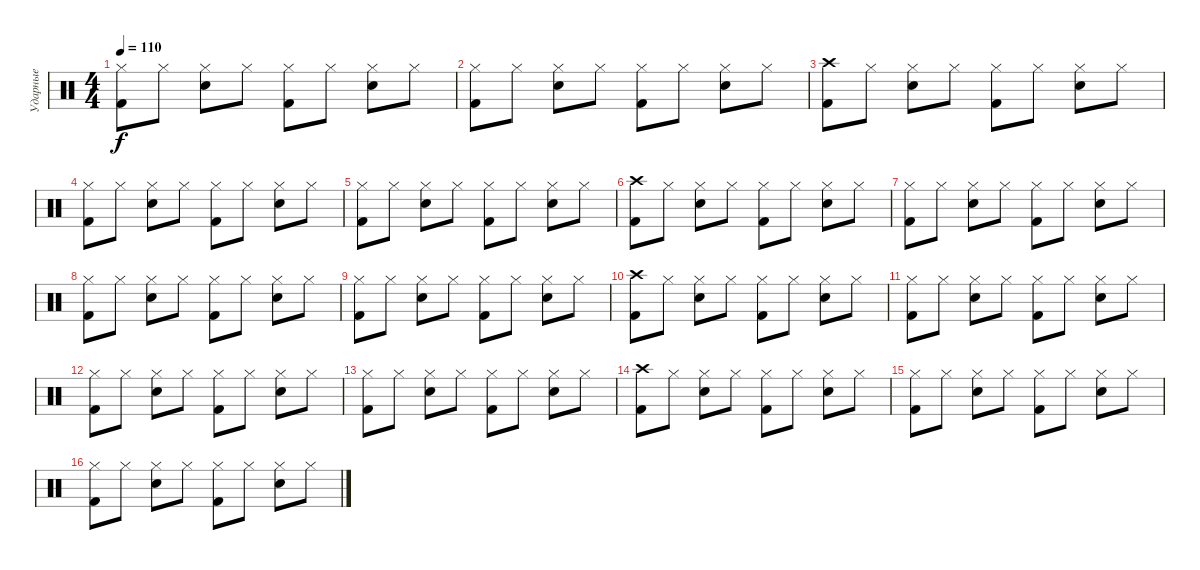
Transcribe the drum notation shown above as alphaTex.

\track ("Ударные" "Ударные") {instrument percussion}
\staff {score}
\articulation defaults
\ts (4 4)
\tempo 110
\clef neutral
\ks c
("Hi-Hat (closed)" "Kick (hit) 2").8{dy f} "Hi-Hat (closed)".8 ("Hi-Hat (closed)" "Electric Snare (hit)").8 "Hi-Hat (closed)".8 ("Hi-Hat (closed)" "Kick (hit) 2").8 "Hi-Hat (closed)".8 ("Hi-Hat (closed)" "Electric Snare (hit)").8 "Hi-Hat (closed)".8 |
("Hi-Hat (closed)" "Kick (hit) 2").8 "Hi-Hat (closed)".8 ("Hi-Hat (closed)" "Electric Snare (hit)").8 "Hi-Hat (closed)".8 ("Hi-Hat (closed)" "Kick (hit) 2").8 "Hi-Hat (closed)".8 ("Hi-Hat (closed)" "Electric Snare (hit)").8 "Hi-Hat (closed)".8 |
("Crash high (hit)" "Kick (hit) 2").8 "Hi-Hat (closed)".8 ("Hi-Hat (closed)" "Electric Snare (hit)").8 "Hi-Hat (closed)".8 ("Hi-Hat (closed)" "Kick (hit) 2").8 "Hi-Hat (closed)".8 ("Hi-Hat (closed)" "Electric Snare (hit)").8 "Hi-Hat (closed)".8 |
("Hi-Hat (closed)" "Kick (hit) 2").8 "Hi-Hat (closed)".8 ("Hi-Hat (closed)" "Electric Snare (hit)").8 "Hi-Hat (closed)".8 ("Hi-Hat (closed)" "Kick (hit) 2").8 "Hi-Hat (closed)".8 ("Hi-Hat (closed)" "Electric Snare (hit)").8 "Hi-Hat (closed)".8 |
("Hi-Hat (closed)" "Kick (hit) 2").8 "Hi-Hat (closed)".8 ("Hi-Hat (closed)" "Electric Snare (hit)").8 "Hi-Hat (closed)".8 ("Hi-Hat (closed)" "Kick (hit) 2").8 "Hi-Hat (closed)".8 ("Hi-Hat (closed)" "Electric Snare (hit)").8 "Hi-Hat (closed)".8 |
("Crash high (hit)" "Kick (hit) 2").8 "Hi-Hat (closed)".8 ("Hi-Hat (closed)" "Electric Snare (hit)").8 "Hi-Hat (closed)".8 ("Hi-Hat (closed)" "Kick (hit) 2").8 "Hi-Hat (closed)".8 ("Hi-Hat (closed)" "Electric Snare (hit)").8 "Hi-Hat (closed)".8 |
("Hi-Hat (closed)" "Kick (hit) 2").8 "Hi-Hat (closed)".8 ("Hi-Hat (closed)" "Electric Snare (hit)").8 "Hi-Hat (closed)".8 ("Hi-Hat (closed)" "Kick (hit) 2").8 "Hi-Hat (closed)".8 ("Hi-Hat (closed)" "Electric Snare (hit)").8 "Hi-Hat (closed)".8 |
("Hi-Hat (closed)" "Kick (hit) 2").8 "Hi-Hat (closed)".8 ("Hi-Hat (closed)" "Electric Snare (hit)").8 "Hi-Hat (closed)".8 ("Hi-Hat (closed)" "Kick (hit) 2").8 "Hi-Hat (closed)".8 ("Hi-Hat (closed)" "Electric Snare (hit)").8 "Hi-Hat (closed)".8 |
("Hi-Hat (closed)" "Kick (hit) 2").8 "Hi-Hat (closed)".8 ("Hi-Hat (closed)" "Electric Snare (hit)").8 "Hi-Hat (closed)".8 ("Hi-Hat (closed)" "Kick (hit) 2").8 "Hi-Hat (closed)".8 ("Hi-Hat (closed)" "Electric Snare (hit)").8 "Hi-Hat (closed)".8 |
("Crash high (hit)" "Kick (hit) 2").8 "Hi-Hat (closed)".8 ("Hi-Hat (closed)" "Electric Snare (hit)").8 "Hi-Hat (closed)".8 ("Hi-Hat (closed)" "Kick (hit) 2").8 "Hi-Hat (closed)".8 ("Hi-Hat (closed)" "Electric Snare (hit)").8 "Hi-Hat (closed)".8 |
("Hi-Hat (closed)" "Kick (hit) 2").8 "Hi-Hat (closed)".8 ("Hi-Hat (closed)" "Electric Snare (hit)").8 "Hi-Hat (closed)".8 ("Hi-Hat (closed)" "Kick (hit) 2").8 "Hi-Hat (closed)".8 ("Hi-Hat (closed)" "Electric Snare (hit)").8 "Hi-Hat (closed)".8 |
("Hi-Hat (closed)" "Kick (hit) 2").8 "Hi-Hat (closed)".8 ("Hi-Hat (closed)" "Electric Snare (hit)").8 "Hi-Hat (closed)".8 ("Hi-Hat (closed)" "Kick (hit) 2").8 "Hi-Hat (closed)".8 ("Hi-Hat (closed)" "Electric Snare (hit)").8 "Hi-Hat (closed)".8 |
("Hi-Hat (closed)" "Kick (hit) 2").8 "Hi-Hat (closed)".8 ("Hi-Hat (closed)" "Electric Snare (hit)").8 "Hi-Hat (closed)".8 ("Hi-Hat (closed)" "Kick (hit) 2").8 "Hi-Hat (closed)".8 ("Hi-Hat (closed)" "Electric Snare (hit)").8 "Hi-Hat (closed)".8 |
("Crash high (hit)" "Kick (hit) 2").8 "Hi-Hat (closed)".8 ("Hi-Hat (closed)" "Electric Snare (hit)").8 "Hi-Hat (closed)".8 ("Hi-Hat (closed)" "Kick (hit) 2").8 "Hi-Hat (closed)".8 ("Hi-Hat (closed)" "Electric Snare (hit)").8 "Hi-Hat (closed)".8 |
("Hi-Hat (closed)" "Kick (hit) 2").8 "Hi-Hat (closed)".8 ("Hi-Hat (closed)" "Electric Snare (hit)").8 "Hi-Hat (closed)".8 ("Hi-Hat (closed)" "Kick (hit) 2").8 "Hi-Hat (closed)".8 ("Hi-Hat (closed)" "Electric Snare (hit)").8 "Hi-Hat (closed)".8 |
("Hi-Hat (closed)" "Kick (hit) 2").8 "Hi-Hat (closed)".8 ("Hi-Hat (closed)" "Electric Snare (hit)").8 "Hi-Hat (closed)".8 ("Hi-Hat (closed)" "Kick (hit) 2").8 "Hi-Hat (closed)".8 ("Hi-Hat (closed)" "Electric Snare (hit)").8 "Hi-Hat (closed)".8
